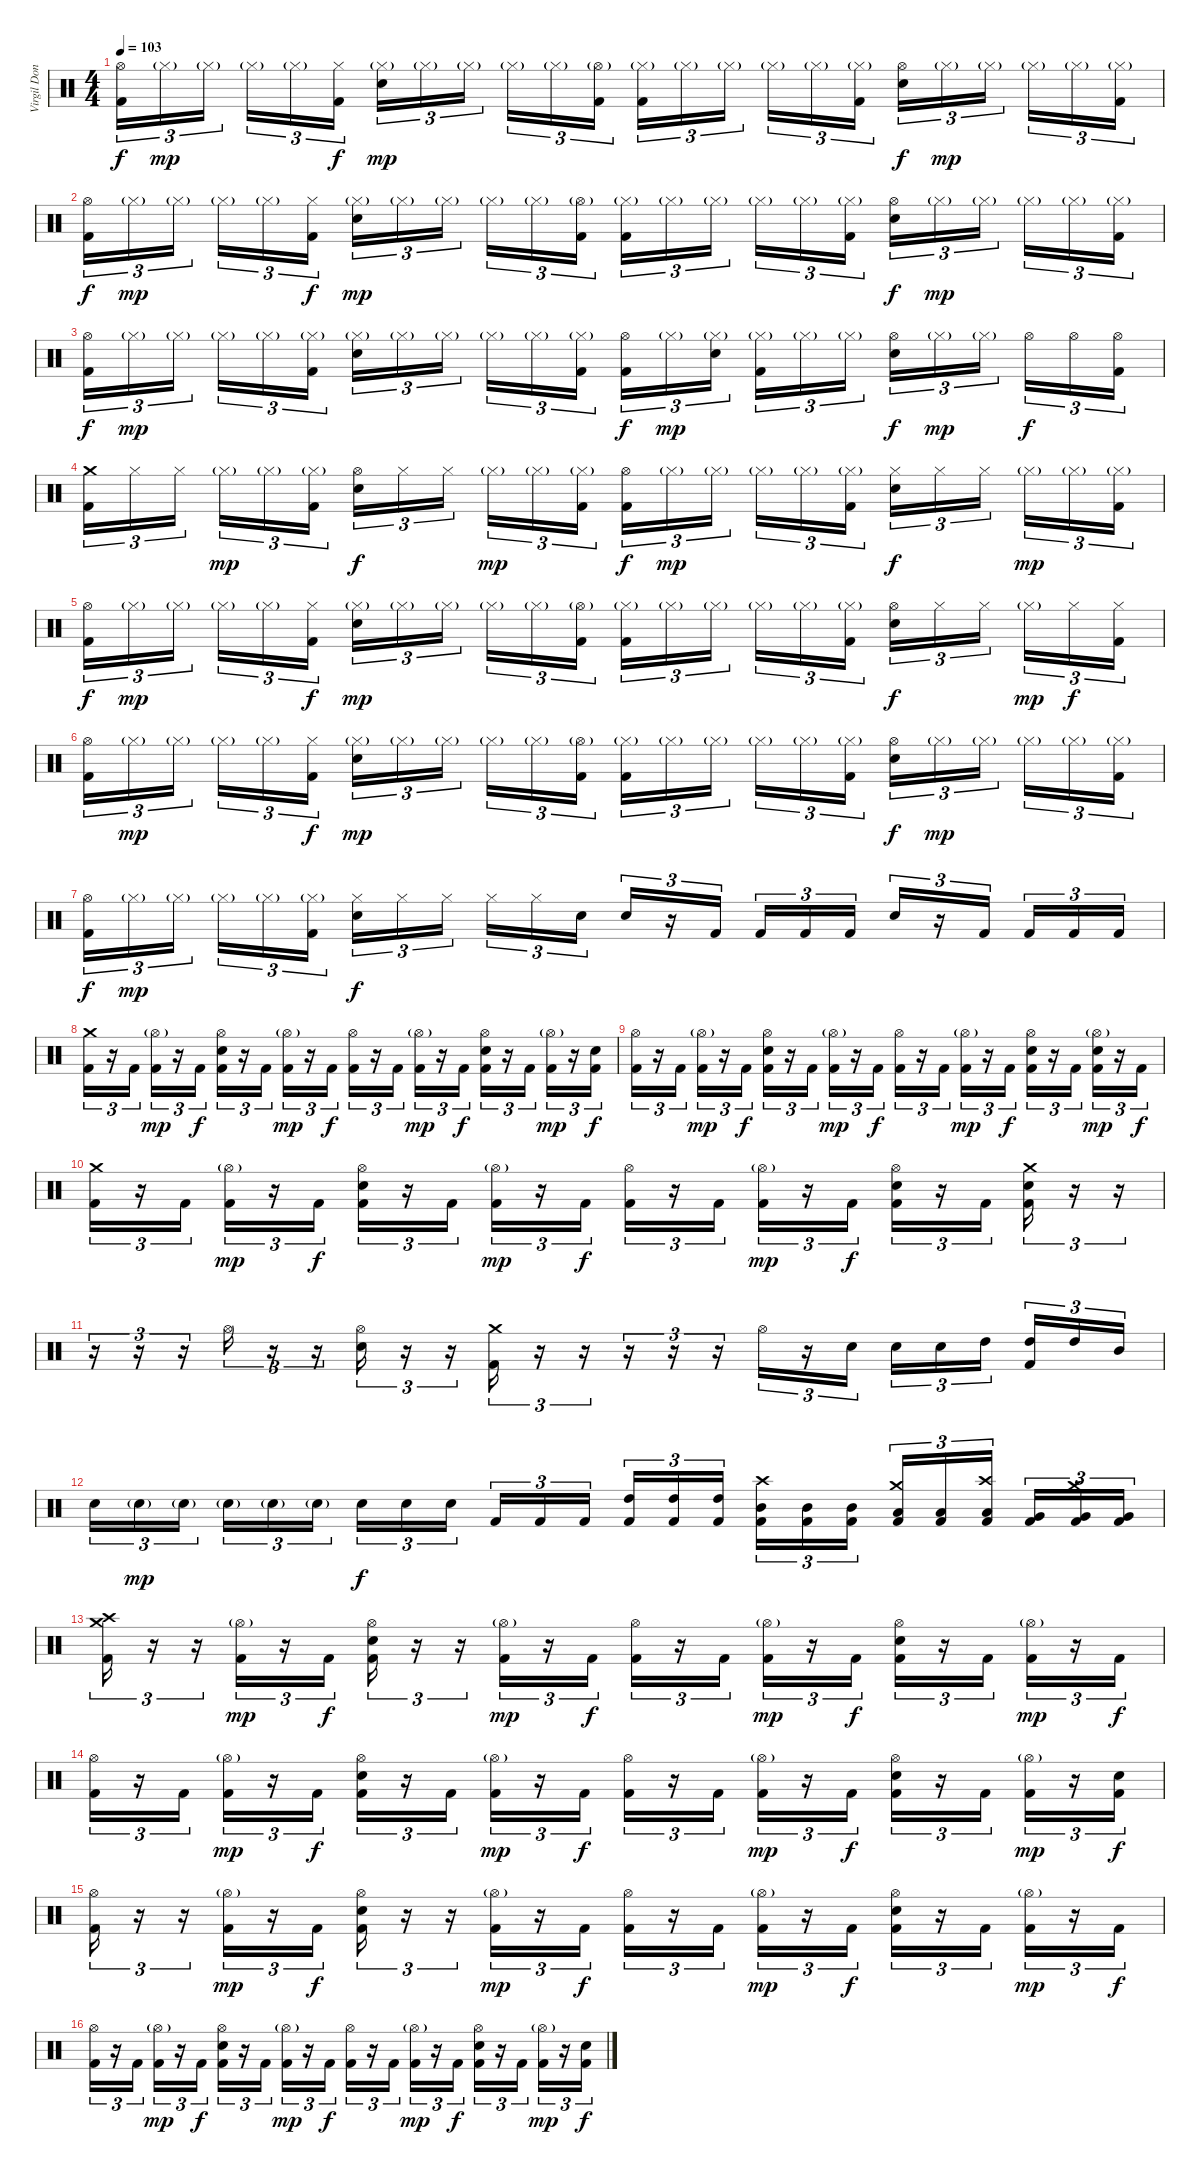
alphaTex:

\track ("Virgil Donati" "Virgil Don") {instrument percussion}
\staff {score}
\articulation defaults
\ts (4 4)
\tempo 103
\clef neutral
\ks c
("Hi-Hat (open)" "Kick (hit) 2").16{tu (3 2) dy f} "Hi-Hat (closed)"{g}.16{tu (3 2) dy mp} "Hi-Hat (closed)"{g}.16{tu (3 2)} "Hi-Hat (closed)"{g}.16{tu (3 2)} "Hi-Hat (closed)"{g}.16{tu (3 2)} ("Hi-Hat (closed)" "Kick (hit) 2").16{tu (3 2) dy f} ("Hi-Hat (closed)"{g} "Snare (hit) 2").16{tu (3 2) dy mp} "Hi-Hat (closed)"{g}.16{tu (3 2)} "Hi-Hat (closed)"{g}.16{tu (3 2)} "Hi-Hat (closed)"{g}.16{tu (3 2)} "Hi-Hat (closed)"{g}.16{tu (3 2)} ("Hi-Hat (open)"{g} "Kick (hit) 2").16{tu (3 2)} ("Hi-Hat (closed)"{g} "Kick (hit) 2").16{tu (3 2)} "Hi-Hat (closed)"{g}.16{tu (3 2)} "Hi-Hat (closed)"{g}.16{tu (3 2)} "Hi-Hat (closed)"{g}.16{tu (3 2)} "Hi-Hat (closed)"{g}.16{tu (3 2)} ("Hi-Hat (closed)"{g} "Kick (hit) 2").16{tu (3 2)} ("Hi-Hat (open)" "Snare (hit) 2").16{tu (3 2) dy f} "Hi-Hat (closed)"{g}.16{tu (3 2) dy mp} "Hi-Hat (closed)"{g}.16{tu (3 2)} "Hi-Hat (closed)"{g}.16{tu (3 2)} "Hi-Hat (closed)"{g}.16{tu (3 2)} ("Hi-Hat (closed)"{g} "Kick (hit) 2").16{tu (3 2)} |
("Hi-Hat (open)" "Kick (hit) 2").16{tu (3 2) dy f} "Hi-Hat (closed)"{g}.16{tu (3 2) dy mp} "Hi-Hat (closed)"{g}.16{tu (3 2)} "Hi-Hat (closed)"{g}.16{tu (3 2)} "Hi-Hat (closed)"{g}.16{tu (3 2)} ("Hi-Hat (closed)" "Kick (hit) 2").16{tu (3 2) dy f} ("Hi-Hat (closed)"{g} "Snare (hit) 2").16{tu (3 2) dy mp} "Hi-Hat (closed)"{g}.16{tu (3 2)} "Hi-Hat (closed)"{g}.16{tu (3 2)} "Hi-Hat (closed)"{g}.16{tu (3 2)} "Hi-Hat (closed)"{g}.16{tu (3 2)} ("Hi-Hat (open)"{g} "Kick (hit) 2").16{tu (3 2)} ("Hi-Hat (closed)"{g} "Kick (hit) 2").16{tu (3 2)} "Hi-Hat (closed)"{g}.16{tu (3 2)} "Hi-Hat (closed)"{g}.16{tu (3 2)} "Hi-Hat (closed)"{g}.16{tu (3 2)} "Hi-Hat (closed)"{g}.16{tu (3 2)} ("Hi-Hat (closed)"{g} "Kick (hit) 2").16{tu (3 2)} ("Hi-Hat (open)" "Snare (hit) 2").16{tu (3 2) dy f} "Hi-Hat (closed)"{g}.16{tu (3 2) dy mp} "Hi-Hat (closed)"{g}.16{tu (3 2)} "Hi-Hat (closed)"{g}.16{tu (3 2)} "Hi-Hat (closed)"{g}.16{tu (3 2)} ("Hi-Hat (closed)"{g} "Kick (hit) 2").16{tu (3 2)} |
("Hi-Hat (open)" "Kick (hit) 2").16{tu (3 2) dy f} "Hi-Hat (closed)"{g}.16{tu (3 2) dy mp} "Hi-Hat (closed)"{g}.16{tu (3 2)} "Hi-Hat (closed)"{g}.16{tu (3 2)} "Hi-Hat (closed)"{g}.16{tu (3 2)} ("Hi-Hat (closed)"{g} "Kick (hit) 2").16{tu (3 2)} ("Hi-Hat (closed)"{g} "Snare (hit) 2").16{tu (3 2)} "Hi-Hat (closed)"{g}.16{tu (3 2)} "Hi-Hat (closed)"{g}.16{tu (3 2)} "Hi-Hat (closed)"{g}.16{tu (3 2)} "Hi-Hat (closed)"{g}.16{tu (3 2)} ("Hi-Hat (closed)"{g} "Kick (hit) 2").16{tu (3 2)} ("Hi-Hat (open)" "Kick (hit) 2").16{tu (3 2) dy f} "Hi-Hat (closed)"{g}.16{tu (3 2) dy mp} ("Hi-Hat (closed)"{g} "Snare (hit) 2").16{tu (3 2)} ("Hi-Hat (closed)"{g} "Kick (hit) 2").16{tu (3 2)} "Hi-Hat (closed)"{g}.16{tu (3 2)} "Hi-Hat (closed)"{g}.16{tu (3 2)} ("Hi-Hat (open)" "Snare (hit) 2").16{tu (3 2) dy f} "Hi-Hat (closed)"{g}.16{tu (3 2) dy mp} "Hi-Hat (closed)"{g}.16{tu (3 2)} "Hi-Hat (open)".16{tu (3 2) dy f} "Hi-Hat (open)".16{tu (3 2)} ("Hi-Hat (open)" "Kick (hit) 2").16{tu (3 2)} |
("Crash medium (hit)" "Kick (hit) 2").16{tu (3 2)} "Hi-Hat (closed)".16{tu (3 2)} "Hi-Hat (closed)".16{tu (3 2)} "Hi-Hat (closed)"{g}.16{tu (3 2) dy mp} "Hi-Hat (closed)"{g}.16{tu (3 2)} ("Hi-Hat (closed)"{g} "Kick (hit) 2").16{tu (3 2)} ("Hi-Hat (open)" "Snare (hit) 2").16{tu (3 2) dy f} "Hi-Hat (closed)".16{tu (3 2)} "Hi-Hat (closed)".16{tu (3 2)} "Hi-Hat (closed)"{g}.16{tu (3 2) dy mp} "Hi-Hat (closed)"{g}.16{tu (3 2)} ("Hi-Hat (closed)"{g} "Kick (hit) 2").16{tu (3 2)} ("Hi-Hat (open)" "Kick (hit) 2").16{tu (3 2) dy f} "Hi-Hat (closed)"{g}.16{tu (3 2) dy mp} "Hi-Hat (closed)"{g}.16{tu (3 2)} "Hi-Hat (closed)"{g}.16{tu (3 2)} "Hi-Hat (closed)"{g}.16{tu (3 2)} ("Hi-Hat (closed)"{g} "Kick (hit) 2").16{tu (3 2)} ("Hi-Hat (closed)" "Snare (hit) 2").16{tu (3 2) dy f} "Hi-Hat (closed)".16{tu (3 2)} "Hi-Hat (closed)".16{tu (3 2)} "Hi-Hat (closed)"{g}.16{tu (3 2) dy mp} "Hi-Hat (closed)"{g}.16{tu (3 2)} ("Hi-Hat (closed)"{g} "Kick (hit) 2").16{tu (3 2)} |
("Hi-Hat (open)" "Kick (hit) 2").16{tu (3 2) dy f} "Hi-Hat (closed)"{g}.16{tu (3 2) dy mp} "Hi-Hat (closed)"{g}.16{tu (3 2)} "Hi-Hat (closed)"{g}.16{tu (3 2)} "Hi-Hat (closed)"{g}.16{tu (3 2)} ("Hi-Hat (closed)" "Kick (hit) 2").16{tu (3 2) dy f} ("Hi-Hat (closed)"{g} "Snare (hit) 2").16{tu (3 2) dy mp} "Hi-Hat (closed)"{g}.16{tu (3 2)} "Hi-Hat (closed)"{g}.16{tu (3 2)} "Hi-Hat (closed)"{g}.16{tu (3 2)} "Hi-Hat (closed)"{g}.16{tu (3 2)} ("Hi-Hat (open)"{g} "Kick (hit) 2").16{tu (3 2)} ("Hi-Hat (closed)"{g} "Kick (hit) 2").16{tu (3 2)} "Hi-Hat (closed)"{g}.16{tu (3 2)} "Hi-Hat (closed)"{g}.16{tu (3 2)} "Hi-Hat (closed)"{g}.16{tu (3 2)} "Hi-Hat (closed)"{g}.16{tu (3 2)} ("Hi-Hat (closed)"{g} "Kick (hit) 2").16{tu (3 2)} ("Hi-Hat (open)" "Snare (hit) 2").16{tu (3 2) dy f} "Hi-Hat (closed)".16{tu (3 2)} "Hi-Hat (closed)".16{tu (3 2)} "Hi-Hat (closed)"{g}.16{tu (3 2) dy mp} "Hi-Hat (closed)".16{tu (3 2) dy f} ("Hi-Hat (closed)" "Kick (hit) 2").16{tu (3 2)} |
("Hi-Hat (open)" "Kick (hit) 2").16{tu (3 2)} "Hi-Hat (closed)"{g}.16{tu (3 2) dy mp} "Hi-Hat (closed)"{g}.16{tu (3 2)} "Hi-Hat (closed)"{g}.16{tu (3 2)} "Hi-Hat (closed)"{g}.16{tu (3 2)} ("Hi-Hat (closed)" "Kick (hit) 2").16{tu (3 2) dy f} ("Hi-Hat (closed)"{g} "Snare (hit) 2").16{tu (3 2) dy mp} "Hi-Hat (closed)"{g}.16{tu (3 2)} "Hi-Hat (closed)"{g}.16{tu (3 2)} "Hi-Hat (closed)"{g}.16{tu (3 2)} "Hi-Hat (closed)"{g}.16{tu (3 2)} ("Hi-Hat (open)"{g} "Kick (hit) 2").16{tu (3 2)} ("Hi-Hat (closed)"{g} "Kick (hit) 2").16{tu (3 2)} "Hi-Hat (closed)"{g}.16{tu (3 2)} "Hi-Hat (closed)"{g}.16{tu (3 2)} "Hi-Hat (closed)"{g}.16{tu (3 2)} "Hi-Hat (closed)"{g}.16{tu (3 2)} ("Hi-Hat (closed)"{g} "Kick (hit) 2").16{tu (3 2)} ("Hi-Hat (open)" "Snare (hit) 2").16{tu (3 2) dy f} "Hi-Hat (closed)"{g}.16{tu (3 2) dy mp} "Hi-Hat (closed)"{g}.16{tu (3 2)} "Hi-Hat (closed)"{g}.16{tu (3 2)} "Hi-Hat (closed)"{g}.16{tu (3 2)} ("Hi-Hat (closed)"{g} "Kick (hit) 2").16{tu (3 2)} |
("Hi-Hat (open)" "Kick (hit) 2").16{tu (3 2) dy f} "Hi-Hat (closed)"{g}.16{tu (3 2) dy mp} "Hi-Hat (closed)"{g}.16{tu (3 2)} "Hi-Hat (closed)"{g}.16{tu (3 2)} "Hi-Hat (closed)"{g}.16{tu (3 2)} ("Hi-Hat (closed)"{g} "Kick (hit) 2").16{tu (3 2)} ("Hi-Hat (closed)" "Snare (hit) 2").16{tu (3 2) dy f} "Hi-Hat (closed)".16{tu (3 2)} "Hi-Hat (closed)".16{tu (3 2)} "Hi-Hat (closed)".16{tu (3 2)} "Hi-Hat (closed)".16{tu (3 2)} "Snare (hit) 2".16{tu (3 2)} "Snare (hit) 2".16{tu (3 2)} r.16{tu (3 2)} "Kick (hit) 2".16{tu (3 2)} "Kick (hit) 2".16{tu (3 2)} "Kick (hit) 2".16{tu (3 2)} "Kick (hit) 2".16{tu (3 2)} "Snare (hit) 2".16{tu (3 2)} r.16{tu (3 2)} "Kick (hit) 2".16{tu (3 2)} "Kick (hit) 2".16{tu (3 2)} "Kick (hit) 2".16{tu (3 2)} "Kick (hit) 2".16{tu (3 2)} |
("Crash medium (hit)" "Kick (hit) 2").16{tu (3 2)} r.16{tu (3 2)} "Kick (hit) 2".16{tu (3 2)} ("Hi-Hat (open)"{g} "Kick (hit) 2").16{tu (3 2) dy mp} r.16{tu (3 2)} "Kick (hit) 2".16{tu (3 2) dy f} ("Hi-Hat (open)" "Snare (hit) 2" "Kick (hit) 2").16{tu (3 2)} r.16{tu (3 2)} "Kick (hit) 2".16{tu (3 2)} ("Hi-Hat (open)"{g} "Kick (hit) 2").16{tu (3 2) dy mp} r.16{tu (3 2)} "Kick (hit) 2".16{tu (3 2) dy f} ("Hi-Hat (open)" "Kick (hit) 2").16{tu (3 2)} r.16{tu (3 2)} "Kick (hit) 2".16{tu (3 2)} ("Hi-Hat (open)"{g} "Kick (hit) 2").16{tu (3 2) dy mp} r.16{tu (3 2)} "Kick (hit) 2".16{tu (3 2) dy f} ("Hi-Hat (open)" "Snare (hit) 2" "Kick (hit) 2").16{tu (3 2)} r.16{tu (3 2)} "Kick (hit) 2".16{tu (3 2)} ("Hi-Hat (open)"{g} "Kick (hit) 2").16{tu (3 2) dy mp} r.16{tu (3 2)} ("Snare (hit) 2" "Kick (hit) 2").16{tu (3 2) dy f} |
("Hi-Hat (open)" "Kick (hit) 2").16{tu (3 2)} r.16{tu (3 2)} "Kick (hit) 2".16{tu (3 2)} ("Hi-Hat (open)"{g} "Kick (hit) 2").16{tu (3 2) dy mp} r.16{tu (3 2)} "Kick (hit) 2".16{tu (3 2) dy f} ("Hi-Hat (open)" "Snare (hit) 2" "Kick (hit) 2").16{tu (3 2)} r.16{tu (3 2)} "Kick (hit) 2".16{tu (3 2)} ("Hi-Hat (open)"{g} "Kick (hit) 2").16{tu (3 2) dy mp} r.16{tu (3 2)} "Kick (hit) 2".16{tu (3 2) dy f} ("Hi-Hat (open)" "Kick (hit) 2").16{tu (3 2)} r.16{tu (3 2)} "Kick (hit) 2".16{tu (3 2)} ("Hi-Hat (open)"{g} "Kick (hit) 2").16{tu (3 2) dy mp} r.16{tu (3 2)} "Kick (hit) 2".16{tu (3 2) dy f} ("Hi-Hat (open)" "Snare (hit) 2" "Kick (hit) 2").16{tu (3 2)} r.16{tu (3 2)} "Kick (hit) 2".16{tu (3 2)} ("Hi-Hat (open)"{g} "Snare (hit) 2" "Kick (hit) 2").16{tu (3 2) dy mp} r.16{tu (3 2)} "Kick (hit) 2".16{tu (3 2) dy f} |
("Crash medium (hit)" "Kick (hit) 2").16{tu (3 2)} r.16{tu (3 2)} "Kick (hit) 2".16{tu (3 2)} ("Hi-Hat (open)"{g} "Kick (hit) 2").16{tu (3 2) dy mp} r.16{tu (3 2)} "Kick (hit) 2".16{tu (3 2) dy f} ("Hi-Hat (open)" "Snare (hit) 2" "Kick (hit) 2").16{tu (3 2)} r.16{tu (3 2)} "Kick (hit) 2".16{tu (3 2)} ("Hi-Hat (open)"{g} "Kick (hit) 2").16{tu (3 2) dy mp} r.16{tu (3 2)} "Kick (hit) 2".16{tu (3 2) dy f} ("Hi-Hat (open)" "Kick (hit) 2").16{tu (3 2)} r.16{tu (3 2)} "Kick (hit) 2".16{tu (3 2)} ("Hi-Hat (open)"{g} "Kick (hit) 2").16{tu (3 2) dy mp} r.16{tu (3 2)} "Kick (hit) 2".16{tu (3 2) dy f} ("Hi-Hat (open)" "Snare (hit) 2" "Kick (hit) 2").16{tu (3 2)} r.16{tu (3 2)} "Kick (hit) 2".16{tu (3 2)} ("Crash medium (hit)" "Snare (hit) 2" "Kick (hit) 2").16{tu (3 2)} r.16{tu (3 2)} r.16{tu (3 2)} |
r.16{tu (3 2)} r.16{tu (3 2)} r.16{tu (3 2)} "Hi-Hat (open)".16{tu (3 2)} r.16{tu (3 2)} r.16{tu (3 2)} ("Hi-Hat (open)" "Snare (hit) 2").16{tu (3 2)} r.16{tu (3 2)} r.16{tu (3 2)} ("Crash medium (hit)" "Kick (hit) 2").16{tu (3 2)} r.16{tu (3 2)} r.16{tu (3 2)} r.16{tu (3 2)} r.16{tu (3 2)} r.16{tu (3 2)} "Hi-Hat (open)".16{tu (3 2)} r.16{tu (3 2)} "Snare (hit) 2".16{tu (3 2)} "Snare (hit) 2".16{tu (3 2)} "Snare (hit) 2".16{tu (3 2)} "High Tom (hit)".16{tu (3 2)} ("High Tom (hit)" "Kick (hit) 2").16{tu (3 2)} "High Tom (hit)".16{tu (3 2)} "Mid Tom (hit)".16{tu (3 2)} |
"Snare (hit) 2".16{tu (3 2)} "Snare (hit) 2"{g}.16{tu (3 2) dy mp} "Snare (hit) 2"{g}.16{tu (3 2)} "Snare (hit) 2"{g}.16{tu (3 2)} "Snare (hit) 2"{g}.16{tu (3 2)} "Snare (hit) 2"{g}.16{tu (3 2)} "Snare (hit) 2".16{tu (3 2) dy f} "Snare (hit) 2".16{tu (3 2)} "Snare (hit) 2".16{tu (3 2)} "Kick (hit) 2".16{tu (3 2)} "Kick (hit) 2".16{tu (3 2)} "Kick (hit) 2".16{tu (3 2)} ("High Tom (hit)" "Kick (hit) 2").16{tu (3 2)} ("High Tom (hit)" "Kick (hit) 2").16{tu (3 2)} ("High Tom (hit)" "Kick (hit) 2").16{tu (3 2)} ("Crash high (hit)" "Mid Tom (hit)" "Kick (hit) 2").16{tu (3 2)} ("Mid Tom (hit)" "Kick (hit) 2").16{tu (3 2)} ("Mid Tom (hit)" "Kick (hit) 2").16{tu (3 2)} ("Crash medium (hit)" "Low Tom (hit)" "Kick (hit) 2").16{tu (3 2)} ("Low Tom (hit)" "Kick (hit) 2").16{tu (3 2)} ("Crash high (hit)" "Low Tom (hit)" "Kick (hit) 2").16{tu (3 2)} ("Very Low Tom (hit)" "Kick (hit) 2").16{tu (3 2)} ("Crash medium (hit)" "Very Low Tom (hit)" "Kick (hit) 2").16{tu (3 2)} ("Very Low Tom (hit)" "Kick (hit) 2").16{tu (3 2)} |
("Crash medium (hit)" "Crash high (hit)" "Kick (hit) 2").16{tu (3 2)} r.16{tu (3 2)} r.16{tu (3 2)} ("Hi-Hat (open)"{g} "Kick (hit) 2").16{tu (3 2) dy mp} r.16{tu (3 2)} "Kick (hit) 2".16{tu (3 2) dy f} ("Hi-Hat (open)" "Snare (hit) 2" "Kick (hit) 2").16{tu (3 2)} r.16{tu (3 2)} r.16{tu (3 2)} ("Hi-Hat (open)"{g} "Kick (hit) 2").16{tu (3 2) dy mp} r.16{tu (3 2)} "Kick (hit) 2".16{tu (3 2) dy f} ("Hi-Hat (open)" "Kick (hit) 2").16{tu (3 2)} r.16{tu (3 2)} "Kick (hit) 2".16{tu (3 2)} ("Hi-Hat (open)"{g} "Kick (hit) 2").16{tu (3 2) dy mp} r.16{tu (3 2)} "Kick (hit) 2".16{tu (3 2) dy f} ("Hi-Hat (open)" "Snare (hit) 2" "Kick (hit) 2").16{tu (3 2)} r.16{tu (3 2)} "Kick (hit) 2".16{tu (3 2)} ("Hi-Hat (open)"{g} "Kick (hit) 2").16{tu (3 2) dy mp} r.16{tu (3 2)} "Kick (hit) 2".16{tu (3 2) dy f} |
("Hi-Hat (open)" "Kick (hit) 2").16{tu (3 2)} r.16{tu (3 2)} "Kick (hit) 2".16{tu (3 2)} ("Hi-Hat (open)"{g} "Kick (hit) 2").16{tu (3 2) dy mp} r.16{tu (3 2)} "Kick (hit) 2".16{tu (3 2) dy f} ("Hi-Hat (open)" "Snare (hit) 2" "Kick (hit) 2").16{tu (3 2)} r.16{tu (3 2)} "Kick (hit) 2".16{tu (3 2)} ("Hi-Hat (open)"{g} "Kick (hit) 2").16{tu (3 2) dy mp} r.16{tu (3 2)} "Kick (hit) 2".16{tu (3 2) dy f} ("Hi-Hat (open)" "Kick (hit) 2").16{tu (3 2)} r.16{tu (3 2)} "Kick (hit) 2".16{tu (3 2)} ("Hi-Hat (open)"{g} "Kick (hit) 2").16{tu (3 2) dy mp} r.16{tu (3 2)} "Kick (hit) 2".16{tu (3 2) dy f} ("Hi-Hat (open)" "Snare (hit) 2" "Kick (hit) 2").16{tu (3 2)} r.16{tu (3 2)} "Kick (hit) 2".16{tu (3 2)} ("Hi-Hat (open)"{g} "Kick (hit) 2").16{tu (3 2) dy mp} r.16{tu (3 2)} ("Snare (hit) 2" "Kick (hit) 2").16{tu (3 2) dy f} |
("Hi-Hat (open)" "Kick (hit) 2").16{tu (3 2)} r.16{tu (3 2)} r.16{tu (3 2)} ("Hi-Hat (open)"{g} "Kick (hit) 2").16{tu (3 2) dy mp} r.16{tu (3 2)} "Kick (hit) 2".16{tu (3 2) dy f} ("Hi-Hat (open)" "Snare (hit) 2" "Kick (hit) 2").16{tu (3 2)} r.16{tu (3 2)} r.16{tu (3 2)} ("Hi-Hat (open)"{g} "Kick (hit) 2").16{tu (3 2) dy mp} r.16{tu (3 2)} "Kick (hit) 2".16{tu (3 2) dy f} ("Hi-Hat (open)" "Kick (hit) 2").16{tu (3 2)} r.16{tu (3 2)} "Kick (hit) 2".16{tu (3 2)} ("Hi-Hat (open)"{g} "Kick (hit) 2").16{tu (3 2) dy mp} r.16{tu (3 2)} "Kick (hit) 2".16{tu (3 2) dy f} ("Hi-Hat (open)" "Snare (hit) 2" "Kick (hit) 2").16{tu (3 2)} r.16{tu (3 2)} "Kick (hit) 2".16{tu (3 2)} ("Hi-Hat (open)"{g} "Kick (hit) 2").16{tu (3 2) dy mp} r.16{tu (3 2)} "Kick (hit) 2".16{tu (3 2) dy f} |
("Hi-Hat (open)" "Kick (hit) 2").16{tu (3 2)} r.16{tu (3 2)} "Kick (hit) 2".16{tu (3 2)} ("Hi-Hat (open)"{g} "Kick (hit) 2").16{tu (3 2) dy mp} r.16{tu (3 2)} "Kick (hit) 2".16{tu (3 2) dy f} ("Hi-Hat (open)" "Snare (hit) 2" "Kick (hit) 2").16{tu (3 2)} r.16{tu (3 2)} "Kick (hit) 2".16{tu (3 2)} ("Hi-Hat (open)"{g} "Kick (hit) 2").16{tu (3 2) dy mp} r.16{tu (3 2)} "Kick (hit) 2".16{tu (3 2) dy f} ("Hi-Hat (open)" "Kick (hit) 2").16{tu (3 2)} r.16{tu (3 2)} "Kick (hit) 2".16{tu (3 2)} ("Hi-Hat (open)"{g} "Kick (hit) 2").16{tu (3 2) dy mp} r.16{tu (3 2)} "Kick (hit) 2".16{tu (3 2) dy f} ("Hi-Hat (open)" "Snare (hit) 2" "Kick (hit) 2").16{tu (3 2)} r.16{tu (3 2)} "Kick (hit) 2".16{tu (3 2)} ("Hi-Hat (open)"{g} "Kick (hit) 2").16{tu (3 2) dy mp} r.16{tu (3 2)} ("Snare (hit) 2" "Kick (hit) 2").16{tu (3 2) dy f}
